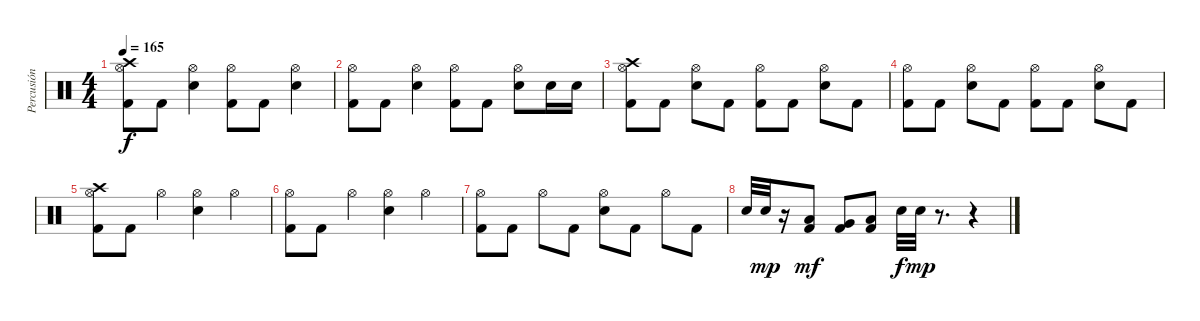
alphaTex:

\track ("Percusión" "Percusión") {instrument percussion}
\staff {score}
\articulation defaults
\ts (4 4)
\tempo 165
\clef neutral
\ks c
("Crash high (hit)" "Hi-Hat (open)" "Kick (hit) 2").8{dy f} "Kick (hit) 2".8 ("Hi-Hat (open)" "Snare (hit) 2").4 ("Hi-Hat (open)" "Kick (hit) 2").8 "Kick (hit) 2".8 ("Hi-Hat (open)" "Snare (hit) 2").4 |
("Hi-Hat (open)" "Kick (hit) 2").8 "Kick (hit) 2".8 ("Hi-Hat (open)" "Snare (hit) 2").4 ("Hi-Hat (open)" "Kick (hit) 2").8 "Kick (hit) 2".8 ("Hi-Hat (open)" "Snare (hit) 2").8 "Snare (hit) 2".16 "Snare (hit) 2".16 |
("Crash high (hit)" "Hi-Hat (open)" "Kick (hit) 2").8 "Kick (hit) 2".8 ("Hi-Hat (open)" "Snare (hit) 2").8 "Kick (hit) 2".8 ("Hi-Hat (open)" "Kick (hit) 2").8 "Kick (hit) 2".8 ("Hi-Hat (open)" "Snare (hit) 2").8 "Kick (hit) 2".8 |
("Hi-Hat (open)" "Kick (hit) 2").8 "Kick (hit) 2".8 ("Hi-Hat (open)" "Snare (hit) 2").8 "Kick (hit) 2".8 ("Hi-Hat (open)" "Kick (hit) 2").8 "Kick (hit) 2".8 ("Hi-Hat (open)" "Snare (hit) 2").8 "Kick (hit) 2".8 |
("Crash high (hit)" "Hi-Hat (open)" "Kick (hit) 2").8 "Kick (hit) 2".8 "Hi-Hat (open)".4 ("Hi-Hat (open)" "Snare (hit) 2").4 "Hi-Hat (open)".4 |
("Hi-Hat (open)" "Kick (hit) 2").8 "Kick (hit) 2".8 "Hi-Hat (open)".4 ("Hi-Hat (open)" "Snare (hit) 2").4 "Hi-Hat (open)".4 |
("Hi-Hat (open)" "Kick (hit) 2").8 "Kick (hit) 2".8 "Hi-Hat (open)".8 "Kick (hit) 2".8 ("Hi-Hat (open)" "Snare (hit) 2").8 "Kick (hit) 2".8 "Hi-Hat (open)".8 "Kick (hit) 2".8 |
"Snare (hit) 2".32 "Snare (hit) 2".32{dy mp} r.16 ("Low Tom (hit)" "Kick (hit) 2").8{dy mf} ("Very Low Tom (hit)" "Kick (hit) 2").8 ("Low Floor Tom (hit)" "Kick (hit) 2").8 "Snare (hit) 2".32{dy f} "Snare (hit) 2".32{dy mp} r.8{d} r.4
